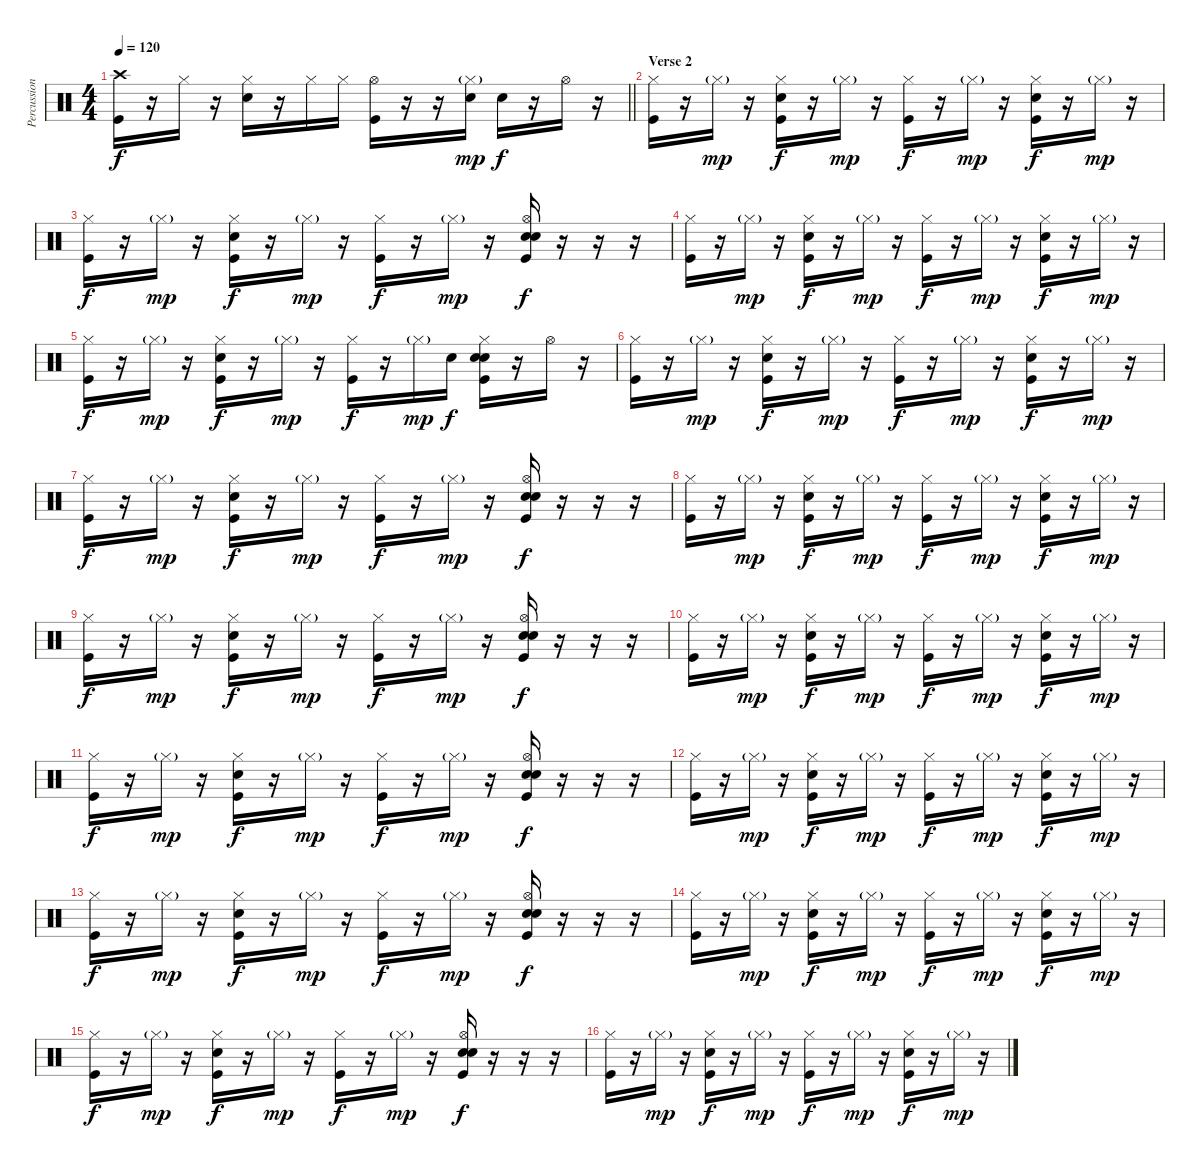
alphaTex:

\track ("Percussion" "Percussion") {instrument percussion}
\staff {score}
\articulation defaults
\ts (4 4)
\tempo 120
\clef neutral
\barLineRight lightlight
\ks c
("Crash high (hit)" "Kick (hit)").16{dy f} r.16 "Hi-Hat (closed)".16 r.16 ("Hi-Hat (closed)" "Hand Clap (hit)").16 r.16 "Hi-Hat (closed)".16 "Hi-Hat (closed)".16 ("Hi-Hat (open)" "Kick (hit)").16 r.16 r.16 ("Hi-Hat (closed)"{g} "Snare (hit) 2").16{dy mp} "Snare (hit) 2".16{dy f} r.16 "Hi-Hat (open)".16 r.16 |
\section ("" "Verse 2")
("Hi-Hat (closed)" "Kick (hit)").16 r.16 "Hi-Hat (closed)"{g}.16{dy mp} r.16 ("Hi-Hat (closed)" "Snare (hit) 2" "Kick (hit)").16{dy f} r.16 "Hi-Hat (closed)"{g}.16{dy mp} r.16 ("Hi-Hat (closed)" "Kick (hit)").16{dy f} r.16 "Hi-Hat (closed)"{g}.16{dy mp} r.16 ("Hi-Hat (closed)" "Snare (hit) 2" "Kick (hit)").16{dy f} r.16 "Hi-Hat (closed)"{g}.16{dy mp} r.16 |
("Hi-Hat (closed)" "Kick (hit)").16{dy f} r.16 "Hi-Hat (closed)"{g}.16{dy mp} r.16 ("Hi-Hat (closed)" "Snare (hit) 2" "Kick (hit)").16{dy f} r.16 "Hi-Hat (closed)"{g}.16{dy mp} r.16 ("Hi-Hat (closed)" "Kick (hit)").16{dy f} r.16 "Hi-Hat (closed)"{g}.16{dy mp} r.16 ("Hi-Hat (open)" "Hand Clap (hit)" "Snare (hit) 2" "Kick (hit)").16{dy f} r.16 r.16 r.16 |
("Hi-Hat (closed)" "Kick (hit)").16 r.16 "Hi-Hat (closed)"{g}.16{dy mp} r.16 ("Hi-Hat (closed)" "Snare (hit) 2" "Kick (hit)").16{dy f} r.16 "Hi-Hat (closed)"{g}.16{dy mp} r.16 ("Hi-Hat (closed)" "Kick (hit)").16{dy f} r.16 "Hi-Hat (closed)"{g}.16{dy mp} r.16 ("Hi-Hat (closed)" "Snare (hit) 2" "Kick (hit)").16{dy f} r.16 "Hi-Hat (closed)"{g}.16{dy mp} r.16 |
("Hi-Hat (closed)" "Kick (hit)").16{dy f} r.16 "Hi-Hat (closed)"{g}.16{dy mp} r.16 ("Hi-Hat (closed)" "Snare (hit) 2" "Kick (hit)").16{dy f} r.16 "Hi-Hat (closed)"{g}.16{dy mp} r.16 ("Hi-Hat (closed)" "Kick (hit)").16{dy f} r.16 "Hi-Hat (closed)"{g}.16{dy mp} "Snare (hit) 2".16{dy f} ("Hi-Hat (closed)" "Hand Clap (hit)" "Snare (hit) 2" "Kick (hit)").16 r.16 "Hi-Hat (open)".16 r.16 |
("Hi-Hat (closed)" "Kick (hit)").16 r.16 "Hi-Hat (closed)"{g}.16{dy mp} r.16 ("Hi-Hat (closed)" "Snare (hit) 2" "Kick (hit)").16{dy f} r.16 "Hi-Hat (closed)"{g}.16{dy mp} r.16 ("Hi-Hat (closed)" "Kick (hit)").16{dy f} r.16 "Hi-Hat (closed)"{g}.16{dy mp} r.16 ("Hi-Hat (closed)" "Snare (hit) 2" "Kick (hit)").16{dy f} r.16 "Hi-Hat (closed)"{g}.16{dy mp} r.16 |
("Hi-Hat (closed)" "Kick (hit)").16{dy f} r.16 "Hi-Hat (closed)"{g}.16{dy mp} r.16 ("Hi-Hat (closed)" "Snare (hit) 2" "Kick (hit)").16{dy f} r.16 "Hi-Hat (closed)"{g}.16{dy mp} r.16 ("Hi-Hat (closed)" "Kick (hit)").16{dy f} r.16 "Hi-Hat (closed)"{g}.16{dy mp} r.16 ("Hi-Hat (open)" "Hand Clap (hit)" "Snare (hit) 2" "Kick (hit)").16{dy f} r.16 r.16 r.16 |
("Hi-Hat (closed)" "Kick (hit)").16 r.16 "Hi-Hat (closed)"{g}.16{dy mp} r.16 ("Hi-Hat (closed)" "Snare (hit) 2" "Kick (hit)").16{dy f} r.16 "Hi-Hat (closed)"{g}.16{dy mp} r.16 ("Hi-Hat (closed)" "Kick (hit)").16{dy f} r.16 "Hi-Hat (closed)"{g}.16{dy mp} r.16 ("Hi-Hat (closed)" "Snare (hit) 2" "Kick (hit)").16{dy f} r.16 "Hi-Hat (closed)"{g}.16{dy mp} r.16 |
("Hi-Hat (closed)" "Kick (hit)").16{dy f} r.16 "Hi-Hat (closed)"{g}.16{dy mp} r.16 ("Hi-Hat (closed)" "Snare (hit) 2" "Kick (hit)").16{dy f} r.16 "Hi-Hat (closed)"{g}.16{dy mp} r.16 ("Hi-Hat (closed)" "Kick (hit)").16{dy f} r.16 "Hi-Hat (closed)"{g}.16{dy mp} r.16 ("Hi-Hat (open)" "Hand Clap (hit)" "Snare (hit) 2" "Kick (hit)").16{dy f} r.16 r.16 r.16 |
("Hi-Hat (closed)" "Kick (hit)").16 r.16 "Hi-Hat (closed)"{g}.16{dy mp} r.16 ("Hi-Hat (closed)" "Snare (hit) 2" "Kick (hit)").16{dy f} r.16 "Hi-Hat (closed)"{g}.16{dy mp} r.16 ("Hi-Hat (closed)" "Kick (hit)").16{dy f} r.16 "Hi-Hat (closed)"{g}.16{dy mp} r.16 ("Hi-Hat (closed)" "Snare (hit) 2" "Kick (hit)").16{dy f} r.16 "Hi-Hat (closed)"{g}.16{dy mp} r.16 |
("Hi-Hat (closed)" "Kick (hit)").16{dy f} r.16 "Hi-Hat (closed)"{g}.16{dy mp} r.16 ("Hi-Hat (closed)" "Snare (hit) 2" "Kick (hit)").16{dy f} r.16 "Hi-Hat (closed)"{g}.16{dy mp} r.16 ("Hi-Hat (closed)" "Kick (hit)").16{dy f} r.16 "Hi-Hat (closed)"{g}.16{dy mp} r.16 ("Hi-Hat (open)" "Hand Clap (hit)" "Snare (hit) 2" "Kick (hit)").16{dy f} r.16 r.16 r.16 |
("Hi-Hat (closed)" "Kick (hit)").16 r.16 "Hi-Hat (closed)"{g}.16{dy mp} r.16 ("Hi-Hat (closed)" "Snare (hit) 2" "Kick (hit)").16{dy f} r.16 "Hi-Hat (closed)"{g}.16{dy mp} r.16 ("Hi-Hat (closed)" "Kick (hit)").16{dy f} r.16 "Hi-Hat (closed)"{g}.16{dy mp} r.16 ("Hi-Hat (closed)" "Snare (hit) 2" "Kick (hit)").16{dy f} r.16 "Hi-Hat (closed)"{g}.16{dy mp} r.16 |
("Hi-Hat (closed)" "Kick (hit)").16{dy f} r.16 "Hi-Hat (closed)"{g}.16{dy mp} r.16 ("Hi-Hat (closed)" "Snare (hit) 2" "Kick (hit)").16{dy f} r.16 "Hi-Hat (closed)"{g}.16{dy mp} r.16 ("Hi-Hat (closed)" "Kick (hit)").16{dy f} r.16 "Hi-Hat (closed)"{g}.16{dy mp} r.16 ("Hi-Hat (open)" "Hand Clap (hit)" "Snare (hit) 2" "Kick (hit)").16{dy f} r.16 r.16 r.16 |
("Hi-Hat (closed)" "Kick (hit)").16 r.16 "Hi-Hat (closed)"{g}.16{dy mp} r.16 ("Hi-Hat (closed)" "Snare (hit) 2" "Kick (hit)").16{dy f} r.16 "Hi-Hat (closed)"{g}.16{dy mp} r.16 ("Hi-Hat (closed)" "Kick (hit)").16{dy f} r.16 "Hi-Hat (closed)"{g}.16{dy mp} r.16 ("Hi-Hat (closed)" "Snare (hit) 2" "Kick (hit)").16{dy f} r.16 "Hi-Hat (closed)"{g}.16{dy mp} r.16 |
("Hi-Hat (closed)" "Kick (hit)").16{dy f} r.16 "Hi-Hat (closed)"{g}.16{dy mp} r.16 ("Hi-Hat (closed)" "Snare (hit) 2" "Kick (hit)").16{dy f} r.16 "Hi-Hat (closed)"{g}.16{dy mp} r.16 ("Hi-Hat (closed)" "Kick (hit)").16{dy f} r.16 "Hi-Hat (closed)"{g}.16{dy mp} r.16 ("Hi-Hat (open)" "Hand Clap (hit)" "Snare (hit) 2" "Kick (hit)").16{dy f} r.16 r.16 r.16 |
("Hi-Hat (closed)" "Kick (hit)").16 r.16 "Hi-Hat (closed)"{g}.16{dy mp} r.16 ("Hi-Hat (closed)" "Snare (hit) 2" "Kick (hit)").16{dy f} r.16 "Hi-Hat (closed)"{g}.16{dy mp} r.16 ("Hi-Hat (closed)" "Kick (hit)").16{dy f} r.16 "Hi-Hat (closed)"{g}.16{dy mp} r.16 ("Hi-Hat (closed)" "Snare (hit) 2" "Kick (hit)").16{dy f} r.16 "Hi-Hat (closed)"{g}.16{dy mp} r.16
